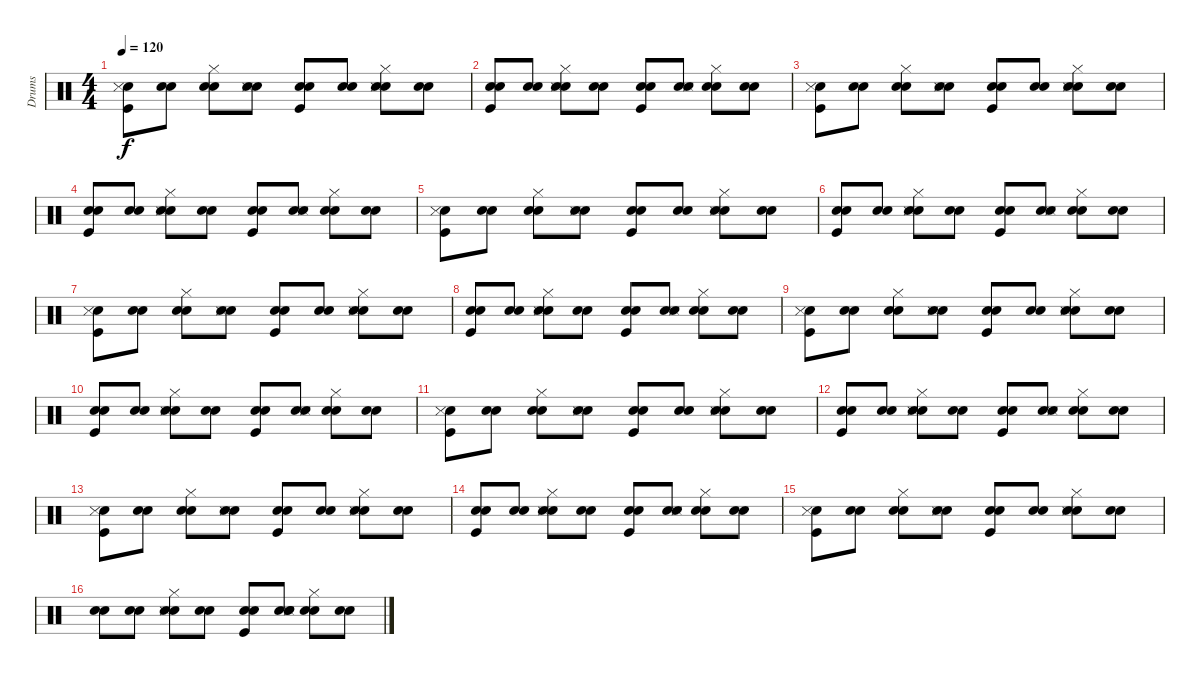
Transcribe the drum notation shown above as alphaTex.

\track ("Drums" "Drums") {instrument percussion}
\staff {score}
\articulation defaults
\ts (4 4)
\tempo 120
\clef neutral
\ks c
("Snare (hit)" "Kick (hit)" "Snare (side stick) 3").8{dy f} ("Snare (hit)" "Snare (hit) 2").8 ("Snare (hit)" "Snare (hit) 2" "Hi-Hat (closed)").8 ("Snare (hit)" "Snare (hit) 2" "Snare (side stick) 3").8 ("Snare (hit)" "Kick (hit)" "Snare (hit) 2").8 ("Snare (hit)" "Snare (hit) 2").8 ("Snare (hit)" "Snare (hit) 2" "Hi-Hat (closed)" "Snare (side stick) 3").8 ("Snare (hit)" "Snare (hit) 2").8 |
("Snare (hit)" "Kick (hit)" "Snare (hit) 2").8 ("Snare (hit)" "Snare (hit) 2").8 ("Snare (hit)" "Snare (hit) 2" "Hi-Hat (closed)" "Snare (side stick) 3").8 ("Snare (hit)" "Snare (hit) 2").8 ("Snare (hit)" "Kick (hit)" "Snare (hit) 2").8 ("Snare (hit)" "Snare (hit) 2" "Snare (side stick) 3").8 ("Snare (hit)" "Snare (hit) 2" "Hi-Hat (closed)").8 ("Snare (hit)" "Snare (hit) 2").8 |
("Snare (hit)" "Kick (hit)" "Snare (side stick) 3").8 ("Snare (hit)" "Snare (hit) 2").8 ("Snare (hit)" "Snare (hit) 2" "Hi-Hat (closed)").8 ("Snare (hit)" "Snare (hit) 2" "Snare (side stick) 3").8 ("Snare (hit)" "Kick (hit)" "Snare (hit) 2").8 ("Snare (hit)" "Snare (hit) 2").8 ("Snare (hit)" "Snare (hit) 2" "Hi-Hat (closed)" "Snare (side stick) 3").8 ("Snare (hit)" "Snare (hit) 2").8 |
("Snare (hit)" "Kick (hit)" "Snare (hit) 2").8 ("Snare (hit)" "Snare (hit) 2").8 ("Snare (hit)" "Snare (hit) 2" "Hi-Hat (closed)" "Snare (side stick) 3").8 ("Snare (hit)" "Snare (hit) 2").8 ("Snare (hit)" "Kick (hit)" "Snare (hit) 2").8 ("Snare (hit)" "Snare (hit) 2" "Snare (side stick) 3").8 ("Snare (hit)" "Snare (hit) 2" "Hi-Hat (closed)").8 ("Snare (hit)" "Snare (hit) 2").8 |
("Snare (hit)" "Kick (hit)" "Snare (side stick) 3").8 ("Snare (hit)" "Snare (hit) 2").8 ("Snare (hit)" "Snare (hit) 2" "Hi-Hat (closed)").8 ("Snare (hit)" "Snare (hit) 2" "Snare (side stick) 3").8 ("Snare (hit)" "Kick (hit)" "Snare (hit) 2").8 ("Snare (hit)" "Snare (hit) 2").8 ("Snare (hit)" "Snare (hit) 2" "Hi-Hat (closed)" "Snare (side stick) 3").8 ("Snare (hit)" "Snare (hit) 2").8 |
("Snare (hit)" "Kick (hit)" "Snare (hit) 2").8 ("Snare (hit)" "Snare (hit) 2").8 ("Snare (hit)" "Snare (hit) 2" "Hi-Hat (closed)" "Snare (side stick) 3").8 ("Snare (hit)" "Snare (hit) 2").8 ("Snare (hit)" "Kick (hit)" "Snare (hit) 2").8 ("Snare (hit)" "Snare (hit) 2" "Snare (side stick) 3").8 ("Snare (hit)" "Snare (hit) 2" "Hi-Hat (closed)").8 ("Snare (hit)" "Snare (hit) 2").8 |
("Snare (hit)" "Kick (hit)" "Snare (side stick) 3").8 ("Snare (hit)" "Snare (hit) 2").8 ("Snare (hit)" "Snare (hit) 2" "Hi-Hat (closed)").8 ("Snare (hit)" "Snare (hit) 2" "Snare (side stick) 3").8 ("Snare (hit)" "Kick (hit)" "Snare (hit) 2").8 ("Snare (hit)" "Snare (hit) 2").8 ("Snare (hit)" "Snare (hit) 2" "Hi-Hat (closed)" "Snare (side stick) 3").8 ("Snare (hit)" "Snare (hit) 2").8 |
("Snare (hit)" "Kick (hit)" "Snare (hit) 2").8 ("Snare (hit)" "Snare (hit) 2").8 ("Snare (hit)" "Snare (hit) 2" "Hi-Hat (closed)" "Snare (side stick) 3").8 ("Snare (hit)" "Snare (hit) 2").8 ("Snare (hit)" "Kick (hit)" "Snare (hit) 2").8 ("Snare (hit)" "Snare (hit) 2" "Snare (side stick) 3").8 ("Snare (hit)" "Snare (hit) 2" "Hi-Hat (closed)").8 ("Snare (hit)" "Snare (hit) 2").8 |
("Snare (hit)" "Kick (hit)" "Snare (side stick) 3").8 ("Snare (hit)" "Snare (hit) 2").8 ("Snare (hit)" "Snare (hit) 2" "Hi-Hat (closed)").8 ("Snare (hit)" "Snare (hit) 2" "Snare (side stick) 3").8 ("Snare (hit)" "Kick (hit)" "Snare (hit) 2").8 ("Snare (hit)" "Snare (hit) 2").8 ("Snare (hit)" "Snare (hit) 2" "Hi-Hat (closed)" "Snare (side stick) 3").8 ("Snare (hit)" "Snare (hit) 2").8 |
("Snare (hit)" "Kick (hit)" "Snare (hit) 2").8 ("Snare (hit)" "Snare (hit) 2").8 ("Snare (hit)" "Snare (hit) 2" "Hi-Hat (closed)" "Snare (side stick) 3").8 ("Snare (hit)" "Snare (hit) 2").8 ("Snare (hit)" "Kick (hit)" "Snare (hit) 2").8 ("Snare (hit)" "Snare (hit) 2" "Snare (side stick) 3").8 ("Snare (hit)" "Snare (hit) 2" "Hi-Hat (closed)").8 ("Snare (hit)" "Snare (hit) 2").8 |
("Snare (hit)" "Kick (hit)" "Snare (side stick) 3").8 ("Snare (hit)" "Snare (hit) 2").8 ("Snare (hit)" "Snare (hit) 2" "Hi-Hat (closed)").8 ("Snare (hit)" "Snare (hit) 2" "Snare (side stick) 3").8 ("Snare (hit)" "Kick (hit)" "Snare (hit) 2").8 ("Snare (hit)" "Snare (hit) 2").8 ("Snare (hit)" "Snare (hit) 2" "Hi-Hat (closed)" "Snare (side stick) 3").8 ("Snare (hit)" "Snare (hit) 2").8 |
("Snare (hit)" "Kick (hit)" "Snare (hit) 2").8 ("Snare (hit)" "Snare (hit) 2").8 ("Snare (hit)" "Snare (hit) 2" "Hi-Hat (closed)" "Snare (side stick) 3").8 ("Snare (hit)" "Snare (hit) 2").8 ("Snare (hit)" "Kick (hit)" "Snare (hit) 2").8 ("Snare (hit)" "Snare (hit) 2" "Snare (side stick) 3").8 ("Snare (hit)" "Snare (hit) 2" "Hi-Hat (closed)").8 ("Snare (hit)" "Snare (hit) 2").8 |
("Snare (hit)" "Kick (hit)" "Snare (side stick) 3").8 ("Snare (hit)" "Snare (hit) 2").8 ("Snare (hit)" "Snare (hit) 2" "Hi-Hat (closed)").8 ("Snare (hit)" "Snare (hit) 2" "Snare (side stick) 3").8 ("Snare (hit)" "Kick (hit)" "Snare (hit) 2").8 ("Snare (hit)" "Snare (hit) 2").8 ("Snare (hit)" "Snare (hit) 2" "Hi-Hat (closed)" "Snare (side stick) 3").8 ("Snare (hit)" "Snare (hit) 2").8 |
("Snare (hit)" "Kick (hit)" "Snare (hit) 2").8 ("Snare (hit)" "Snare (hit) 2").8 ("Snare (hit)" "Snare (hit) 2" "Hi-Hat (closed)" "Snare (side stick) 3").8 ("Snare (hit)" "Snare (hit) 2").8 ("Snare (hit)" "Kick (hit)" "Snare (hit) 2").8 ("Snare (hit)" "Snare (hit) 2" "Snare (side stick) 3").8 ("Snare (hit)" "Snare (hit) 2" "Hi-Hat (closed)").8 ("Snare (hit)" "Snare (hit) 2").8 |
("Snare (hit)" "Kick (hit)" "Snare (side stick) 3").8 ("Snare (hit)" "Snare (hit) 2").8 ("Snare (hit)" "Snare (hit) 2" "Hi-Hat (closed)").8 ("Snare (hit)" "Snare (hit) 2" "Snare (side stick) 3").8 ("Snare (hit)" "Kick (hit)" "Snare (hit) 2").8 ("Snare (hit)" "Snare (hit) 2").8 ("Snare (hit)" "Snare (hit) 2" "Hi-Hat (closed)" "Snare (side stick) 3").8 ("Snare (hit)" "Snare (hit) 2").8 |
("Snare (hit)" "Snare (hit) 2").8 ("Snare (hit)" "Snare (hit) 2").8 ("Snare (hit)" "Snare (hit) 2" "Hi-Hat (closed)" "Snare (side stick) 3").8 ("Snare (hit)" "Snare (hit) 2").8 ("Snare (hit)" "Kick (hit)" "Snare (hit) 2").8 ("Snare (hit)" "Snare (hit) 2" "Snare (side stick) 3" "Hand Clap (hit)").8 ("Snare (hit)" "Snare (hit) 2" "Hi-Hat (closed)").8 ("Snare (hit)" "Snare (hit) 2").8
